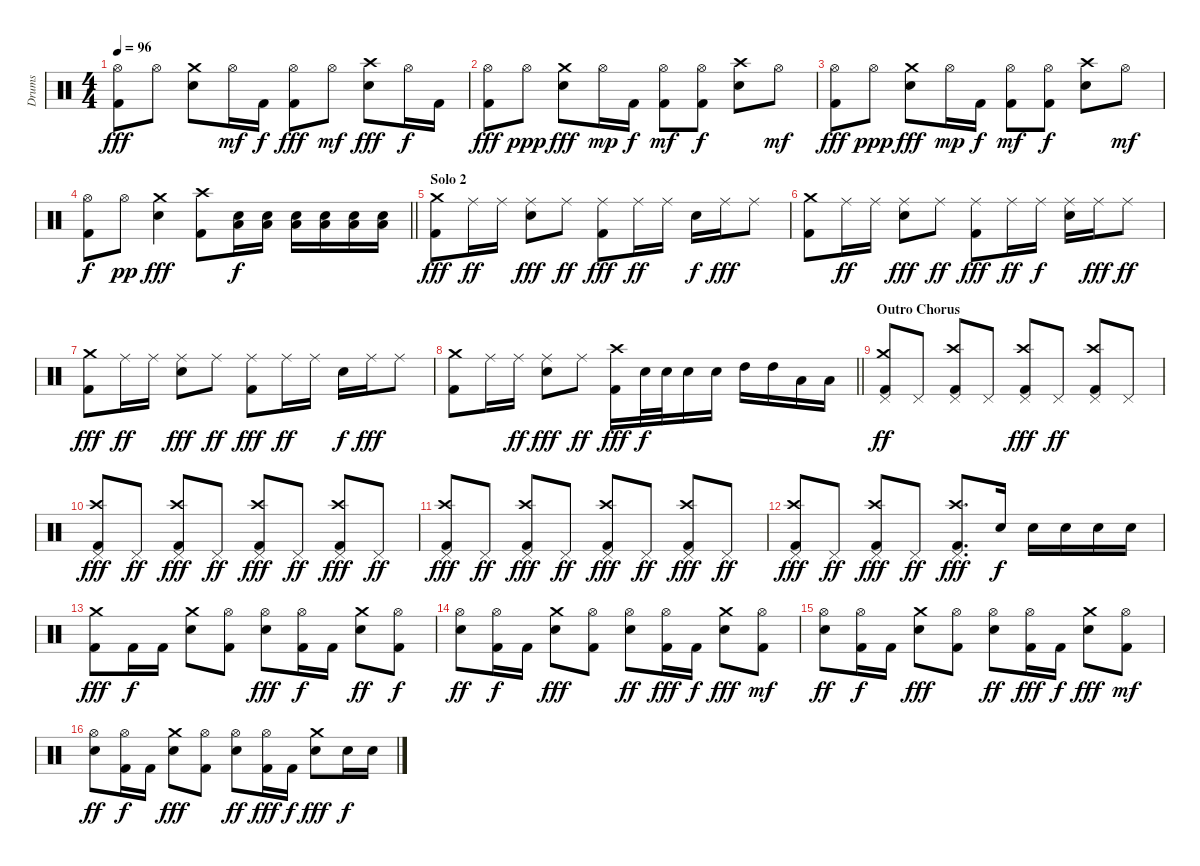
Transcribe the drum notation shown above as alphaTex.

\track ("Drums" "Drums") {instrument percussion}
\staff {score}
\articulation defaults
\ts (4 4)
\tempo 96
\clef neutral
\ks c
("Hi-Hat (open)" "Kick (hit) 2").8{dy fff} "Hi-Hat (open)".8 ("Crash medium (hit)" "Snare (hit) 2").8 "Hi-Hat (open)".16{dy mf} "Kick (hit) 2".16{dy f} ("Hi-Hat (open)" "Kick (hit) 2").8{dy fff} "Hi-Hat (open)".8{dy mf} ("Crash high (hit)" "Snare (hit) 2").8{dy fff} "Hi-Hat (open)".16{dy f} "Kick (hit) 2".16 |
("Hi-Hat (open)" "Kick (hit) 2").8{dy fff} "Hi-Hat (open)".8{dy ppp} ("Crash medium (hit)" "Snare (hit) 2").8{dy fff} "Hi-Hat (open)".16{dy mp} "Kick (hit) 2".16{dy f} ("Hi-Hat (open)" "Kick (hit) 2").8{dy mf} ("Hi-Hat (open)" "Kick (hit) 2").8{dy f} ("Crash high (hit)" "Snare (hit) 2").8 "Hi-Hat (open)".8{dy mf} |
("Hi-Hat (open)" "Kick (hit) 2").8{dy fff} "Hi-Hat (open)".8{dy ppp} ("Crash medium (hit)" "Snare (hit) 2").8{dy fff} "Hi-Hat (open)".16{dy mp} "Kick (hit) 2".16{dy f} ("Hi-Hat (open)" "Kick (hit) 2").8{dy mf} ("Hi-Hat (open)" "Kick (hit) 2").8{dy f} ("Crash high (hit)" "Snare (hit) 2").8 "Hi-Hat (open)".8{dy mf} |
\barLineRight lightlight
("Hi-Hat (open)" "Kick (hit) 2").8{dy f} "Hi-Hat (open)".8{dy pp} ("Crash medium (hit)" "Snare (hit) 2").4{dy fff} ("Crash high (hit)" "Kick (hit) 2").8 ("Snare (hit) 2" "Low Tom (hit)").16{dy f} ("Snare (hit) 2" "Low Tom (hit)").16 ("Snare (hit) 2" "Low Tom (hit)").16 ("Snare (hit) 2" "Low Tom (hit)").16 ("Snare (hit) 2" "Low Tom (hit)").16 ("Snare (hit) 2" "Low Tom (hit)").16 |
\section ("" "Solo 2")
("Crash medium (hit)" "Kick (hit) 2").8{dy fff} "Ride (middle)".16{dy ff} "Ride (middle)".16 ("Ride (middle)" "Snare (hit) 2").8{dy fff} "Ride (middle)".8{dy ff} ("Ride (middle)" "Kick (hit) 2").8{dy fff} "Ride (middle)".16{dy ff} "Ride (middle)".16 "Snare (hit) 2".16{dy f} "Ride (middle)".16{dy fff} "Ride (middle)".8 |
("Crash medium (hit)" "Kick (hit) 2").8 "Ride (middle)".16{dy ff} "Ride (middle)".16 ("Ride (middle)" "Snare (hit) 2").8{dy fff} "Ride (middle)".8{dy ff} ("Ride (middle)" "Kick (hit) 2").8{dy fff} "Ride (middle)".16{dy ff} "Ride (middle)".16{dy f} ("Ride (middle)" "Snare (hit) 2").16 "Ride (middle)".16{dy fff} "Ride (middle)".8{dy ff} |
("Crash medium (hit)" "Kick (hit) 2").8{dy fff} "Ride (middle)".16{dy ff} "Ride (middle)".16 ("Ride (middle)" "Snare (hit) 2").8{dy fff} "Ride (middle)".8{dy ff} ("Ride (middle)" "Kick (hit) 2").8{dy fff} "Ride (middle)".16{dy ff} "Ride (middle)".16 "Snare (hit) 2".16{dy f} "Ride (middle)".16{dy fff} "Ride (middle)".8 |
\barLineRight lightlight
("Crash medium (hit)" "Kick (hit) 2").8 "Ride (middle)".16 "Ride (middle)".16{dy ff} ("Ride (middle)" "Snare (hit) 2").8{dy fff} "Ride (middle)".8{dy ff} ("Crash high (hit)" "Kick (hit) 2").16{dy fff} "Snare (hit) 2".32{dy f} "Snare (hit) 2".32 "Snare (hit) 2".16 "Snare (hit) 2".16 "High Tom (hit)".16 "High Tom (hit)".16 "Low Tom (hit)".16 "Low Tom (hit)".16 |
\section ("" "Outro Chorus")
("Pedal Hi-Hat (hit)" "Crash medium (hit)" "Kick (hit) 2").8{dy ff} "Pedal Hi-Hat (hit)".8 ("Pedal Hi-Hat (hit)" "Crash high (hit)" "Kick (hit) 2").8 "Pedal Hi-Hat (hit)".8 ("Pedal Hi-Hat (hit)" "Crash high (hit)" "Kick (hit) 2").8{dy fff} "Pedal Hi-Hat (hit)".8{dy ff} ("Pedal Hi-Hat (hit)" "Crash high (hit)" "Kick (hit) 2").8 "Pedal Hi-Hat (hit)".8 |
("Pedal Hi-Hat (hit)" "Crash high (hit)" "Kick (hit) 2").8{dy fff} "Pedal Hi-Hat (hit)".8{dy ff} ("Pedal Hi-Hat (hit)" "Crash high (hit)" "Kick (hit) 2").8{dy fff} "Pedal Hi-Hat (hit)".8{dy ff} ("Pedal Hi-Hat (hit)" "Crash high (hit)" "Kick (hit) 2").8{dy fff} "Pedal Hi-Hat (hit)".8{dy ff} ("Pedal Hi-Hat (hit)" "Crash high (hit)" "Kick (hit) 2").8{dy fff} "Pedal Hi-Hat (hit)".8{dy ff} |
("Pedal Hi-Hat (hit)" "Crash high (hit)" "Kick (hit) 2").8{dy fff} "Pedal Hi-Hat (hit)".8{dy ff} ("Pedal Hi-Hat (hit)" "Crash high (hit)" "Kick (hit) 2").8{dy fff} "Pedal Hi-Hat (hit)".8{dy ff} ("Pedal Hi-Hat (hit)" "Crash high (hit)" "Kick (hit) 2").8{dy fff} "Pedal Hi-Hat (hit)".8{dy ff} ("Pedal Hi-Hat (hit)" "Crash high (hit)" "Kick (hit) 2").8{dy fff} "Pedal Hi-Hat (hit)".8{dy ff} |
("Pedal Hi-Hat (hit)" "Crash high (hit)" "Kick (hit) 2").8{dy fff} "Pedal Hi-Hat (hit)".8{dy ff} ("Pedal Hi-Hat (hit)" "Crash high (hit)" "Kick (hit) 2").8{dy fff} "Pedal Hi-Hat (hit)".8{dy ff} ("Pedal Hi-Hat (hit)" "Crash high (hit)" "Kick (hit) 2").8{d dy fff} "Snare (hit) 2".16{dy f} "Snare (hit) 2".16 "Snare (hit) 2".16 "Snare (hit) 2".16 "Snare (hit) 2".16 |
("Crash medium (hit)" "Kick (hit) 2").8{dy fff} "Kick (hit) 2".16{dy f} "Kick (hit) 2".16 ("Crash medium (hit)" "Snare (hit) 2").8 ("Hi-Hat (open)" "Kick (hit) 2").8 ("Hi-Hat (open)" "Snare (hit) 2").8{dy fff} ("Hi-Hat (open)" "Kick (hit) 2").16{dy f} "Kick (hit) 2".16 ("Crash medium (hit)" "Snare (hit) 2").8{dy ff} ("Hi-Hat (open)" "Kick (hit) 2").8{dy f} |
("Hi-Hat (open)" "Snare (hit) 2").8{dy ff} ("Hi-Hat (open)" "Kick (hit) 2").16{dy f} "Kick (hit) 2".16 ("Crash medium (hit)" "Snare (hit) 2").8{dy fff} ("Hi-Hat (open)" "Kick (hit) 2").8 ("Hi-Hat (open)" "Snare (hit) 2").8{dy ff} ("Hi-Hat (open)" "Kick (hit) 2").16{dy fff} "Kick (hit) 2".16{dy f} ("Crash medium (hit)" "Snare (hit) 2").8{dy fff} ("Hi-Hat (open)" "Kick (hit) 2").8{dy mf} |
("Hi-Hat (open)" "Snare (hit) 2").8{dy ff} ("Hi-Hat (open)" "Kick (hit) 2").16{dy f} "Kick (hit) 2".16 ("Crash medium (hit)" "Snare (hit) 2").8{dy fff} ("Hi-Hat (open)" "Kick (hit) 2").8 ("Hi-Hat (open)" "Snare (hit) 2").8{dy ff} ("Hi-Hat (open)" "Kick (hit) 2").16{dy fff} "Kick (hit) 2".16{dy f} ("Crash medium (hit)" "Snare (hit) 2").8{dy fff} ("Hi-Hat (open)" "Kick (hit) 2").8{dy mf} |
("Hi-Hat (open)" "Snare (hit) 2").8{dy ff} ("Hi-Hat (open)" "Kick (hit) 2").16{dy f} "Kick (hit) 2".16 ("Crash medium (hit)" "Snare (hit) 2").8{dy fff} ("Hi-Hat (open)" "Kick (hit) 2").8 ("Hi-Hat (open)" "Snare (hit) 2").8{dy ff} ("Hi-Hat (open)" "Kick (hit) 2").16{dy fff} "Kick (hit) 2".16{dy f} ("Crash medium (hit)" "Snare (hit) 2").8{dy fff} "Snare (hit) 2".16{dy f} "Snare (hit) 2".16
